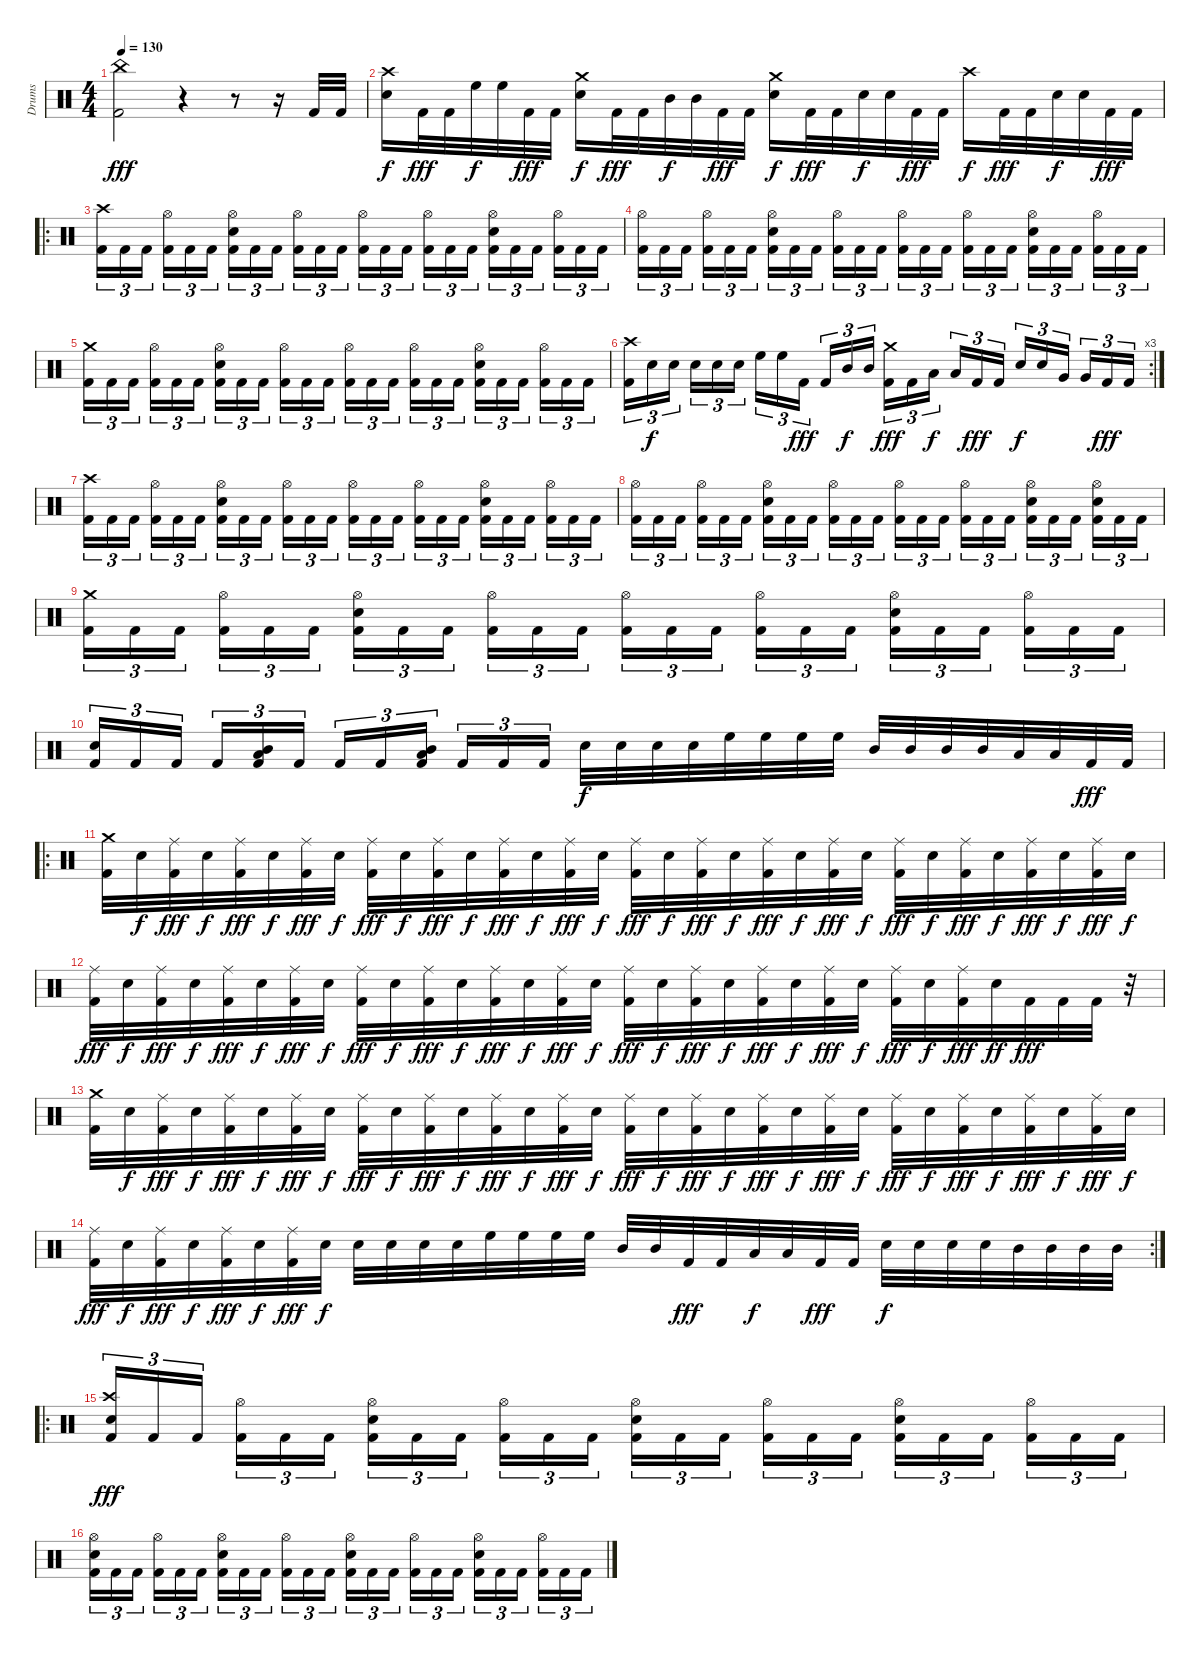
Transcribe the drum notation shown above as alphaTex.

\track ("Drums" "Drums") {instrument percussion}
\staff {score}
\articulation defaults
\ts (4 4)
\tempo 130
\clef neutral
\ks c
("China (hit)" "Kick (hit) 2").2{dy fff} r.4 r.8 r.16 "Kick (hit) 2".32 "Kick (hit) 2".32 |
("Crash high (hit)" "Electric Snare (hit)").16{dy f} "Kick (hit) 2".32{dy fff} "Kick (hit) 2".32 "High Floor Tom (hit)".32{dy f} "High Floor Tom (hit)".32 "Kick (hit) 2".32{dy fff} "Kick (hit) 2".32 ("Crash medium (hit)" "Electric Snare (hit)").16{dy f} "Kick (hit) 2".32{dy fff} "Kick (hit) 2".32 "Mid Tom (hit)".32{dy f} "Mid Tom (hit)".32 "Kick (hit) 2".32{dy fff} "Kick (hit) 2".32 ("Crash medium (hit)" "Electric Snare (hit)").16{dy f} "Kick (hit) 2".32{dy fff} "Kick (hit) 2".32 "Electric Snare (hit)".32{dy f} "Electric Snare (hit)".32 "Kick (hit) 2".32{dy fff} "Kick (hit) 2".32 "Crash high (hit)".16{dy f} "Kick (hit) 2".32{dy fff} "Kick (hit) 2".32 "Electric Snare (hit)".32{dy f} "Electric Snare (hit)".32 "Kick (hit) 2".32{dy fff} "Kick (hit) 2".32 |
\ro
("Crash high (hit)" "Kick (hit) 2").16{tu (3 2)} "Kick (hit) 2".16{tu (3 2)} "Kick (hit) 2".16{tu (3 2)} ("Hi-Hat (open)" "Kick (hit) 2").16{tu (3 2)} "Kick (hit) 2".16{tu (3 2)} "Kick (hit) 2".16{tu (3 2)} ("Hi-Hat (open)" "Electric Snare (hit)" "Kick (hit) 2").16{tu (3 2)} "Kick (hit) 2".16{tu (3 2)} "Kick (hit) 2".16{tu (3 2)} ("Hi-Hat (open)" "Kick (hit) 2").16{tu (3 2)} "Kick (hit) 2".16{tu (3 2)} "Kick (hit) 2".16{tu (3 2)} ("Hi-Hat (open)" "Kick (hit) 2").16{tu (3 2)} "Kick (hit) 2".16{tu (3 2)} "Kick (hit) 2".16{tu (3 2)} ("Hi-Hat (open)" "Kick (hit) 2").16{tu (3 2)} "Kick (hit) 2".16{tu (3 2)} "Kick (hit) 2".16{tu (3 2)} ("Hi-Hat (open)" "Electric Snare (hit)" "Kick (hit) 2").16{tu (3 2)} "Kick (hit) 2".16{tu (3 2)} "Kick (hit) 2".16{tu (3 2)} ("Hi-Hat (open)" "Kick (hit) 2").16{tu (3 2)} "Kick (hit) 2".16{tu (3 2)} "Kick (hit) 2".16{tu (3 2)} |
("Hi-Hat (open)" "Kick (hit) 2").16{tu (3 2)} "Kick (hit) 2".16{tu (3 2)} "Kick (hit) 2".16{tu (3 2)} ("Hi-Hat (open)" "Kick (hit) 2").16{tu (3 2)} "Kick (hit) 2".16{tu (3 2)} "Kick (hit) 2".16{tu (3 2)} ("Hi-Hat (open)" "Electric Snare (hit)" "Kick (hit) 2").16{tu (3 2)} "Kick (hit) 2".16{tu (3 2)} "Kick (hit) 2".16{tu (3 2)} ("Hi-Hat (open)" "Kick (hit) 2").16{tu (3 2)} "Kick (hit) 2".16{tu (3 2)} "Kick (hit) 2".16{tu (3 2)} ("Hi-Hat (open)" "Kick (hit) 2").16{tu (3 2)} "Kick (hit) 2".16{tu (3 2)} "Kick (hit) 2".16{tu (3 2)} ("Hi-Hat (open)" "Kick (hit) 2").16{tu (3 2)} "Kick (hit) 2".16{tu (3 2)} "Kick (hit) 2".16{tu (3 2)} ("Hi-Hat (open)" "Electric Snare (hit)" "Kick (hit) 2").16{tu (3 2)} "Kick (hit) 2".16{tu (3 2)} "Kick (hit) 2".16{tu (3 2)} ("Hi-Hat (open)" "Kick (hit) 2").16{tu (3 2)} "Kick (hit) 2".16{tu (3 2)} "Kick (hit) 2".16{tu (3 2)} |
("Crash medium (hit)" "Kick (hit) 2").16{tu (3 2)} "Kick (hit) 2".16{tu (3 2)} "Kick (hit) 2".16{tu (3 2)} ("Hi-Hat (open)" "Kick (hit) 2").16{tu (3 2)} "Kick (hit) 2".16{tu (3 2)} "Kick (hit) 2".16{tu (3 2)} ("Hi-Hat (open)" "Electric Snare (hit)" "Kick (hit) 2").16{tu (3 2)} "Kick (hit) 2".16{tu (3 2)} "Kick (hit) 2".16{tu (3 2)} ("Hi-Hat (open)" "Kick (hit) 2").16{tu (3 2)} "Kick (hit) 2".16{tu (3 2)} "Kick (hit) 2".16{tu (3 2)} ("Hi-Hat (open)" "Kick (hit) 2").16{tu (3 2)} "Kick (hit) 2".16{tu (3 2)} "Kick (hit) 2".16{tu (3 2)} ("Hi-Hat (open)" "Kick (hit) 2").16{tu (3 2)} "Kick (hit) 2".16{tu (3 2)} "Kick (hit) 2".16{tu (3 2)} ("Hi-Hat (open)" "Electric Snare (hit)" "Kick (hit) 2").16{tu (3 2)} "Kick (hit) 2".16{tu (3 2)} "Kick (hit) 2".16{tu (3 2)} ("Hi-Hat (open)" "Kick (hit) 2").16{tu (3 2)} "Kick (hit) 2".16{tu (3 2)} "Kick (hit) 2".16{tu (3 2)} |
\rc 3
("Crash high (hit)" "Kick (hit) 2").16{tu (3 2)} "Electric Snare (hit)".16{tu (3 2) dy f} "Electric Snare (hit)".16{tu (3 2)} "Electric Snare (hit)".16{tu (3 2)} "Electric Snare (hit)".16{tu (3 2)} "Electric Snare (hit)".16{tu (3 2)} "High Floor Tom (hit)".16{tu (3 2)} "High Floor Tom (hit)".16{tu (3 2)} "Kick (hit) 2".16{tu (3 2) dy fff} "Kick (hit) 2".16{tu (3 2)} "Mid Tom (hit)".16{tu (3 2) dy f} "Mid Tom (hit)".16{tu (3 2)} ("Crash medium (hit)" "Kick (hit) 2").16{tu (3 2) dy fff} "Kick (hit) 2".16{tu (3 2)} "Low Tom (hit)".16{tu (3 2) dy f} "Low Tom (hit)".16{tu (3 2)} "Kick (hit) 2".16{tu (3 2) dy fff} "Kick (hit) 2".16{tu (3 2)} "Electric Snare (hit)".16{tu (3 2) dy f} "Electric Snare (hit)".16{tu (3 2)} "Very Low Tom (hit)".16{tu (3 2)} "Very Low Tom (hit)".16{tu (3 2)} "Kick (hit) 2".16{tu (3 2) dy fff} "Kick (hit) 2".16{tu (3 2)} |
("Crash high (hit)" "Kick (hit) 2").16{tu (3 2)} "Kick (hit) 2".16{tu (3 2)} "Kick (hit) 2".16{tu (3 2)} ("Hi-Hat (open)" "Kick (hit) 2").16{tu (3 2)} "Kick (hit) 2".16{tu (3 2)} "Kick (hit) 2".16{tu (3 2)} ("Hi-Hat (open)" "Electric Snare (hit)" "Kick (hit) 2").16{tu (3 2)} "Kick (hit) 2".16{tu (3 2)} "Kick (hit) 2".16{tu (3 2)} ("Hi-Hat (open)" "Kick (hit) 2").16{tu (3 2)} "Kick (hit) 2".16{tu (3 2)} "Kick (hit) 2".16{tu (3 2)} ("Hi-Hat (open)" "Kick (hit) 2").16{tu (3 2)} "Kick (hit) 2".16{tu (3 2)} "Kick (hit) 2".16{tu (3 2)} ("Hi-Hat (open)" "Kick (hit) 2").16{tu (3 2)} "Kick (hit) 2".16{tu (3 2)} "Kick (hit) 2".16{tu (3 2)} ("Hi-Hat (open)" "Electric Snare (hit)" "Kick (hit) 2").16{tu (3 2)} "Kick (hit) 2".16{tu (3 2)} "Kick (hit) 2".16{tu (3 2)} ("Hi-Hat (open)" "Kick (hit) 2").16{tu (3 2)} "Kick (hit) 2".16{tu (3 2)} "Kick (hit) 2".16{tu (3 2)} |
("Hi-Hat (open)" "Kick (hit) 2").16{tu (3 2)} "Kick (hit) 2".16{tu (3 2)} "Kick (hit) 2".16{tu (3 2)} ("Hi-Hat (open)" "Kick (hit) 2").16{tu (3 2)} "Kick (hit) 2".16{tu (3 2)} "Kick (hit) 2".16{tu (3 2)} ("Hi-Hat (open)" "Electric Snare (hit)" "Kick (hit) 2").16{tu (3 2)} "Kick (hit) 2".16{tu (3 2)} "Kick (hit) 2".16{tu (3 2)} ("Hi-Hat (open)" "Kick (hit) 2").16{tu (3 2)} "Kick (hit) 2".16{tu (3 2)} "Kick (hit) 2".16{tu (3 2)} ("Hi-Hat (open)" "Kick (hit) 2").16{tu (3 2)} "Kick (hit) 2".16{tu (3 2)} "Kick (hit) 2".16{tu (3 2)} ("Hi-Hat (open)" "Kick (hit) 2").16{tu (3 2)} "Kick (hit) 2".16{tu (3 2)} "Kick (hit) 2".16{tu (3 2)} ("Hi-Hat (open)" "Electric Snare (hit)" "Kick (hit) 2").16{tu (3 2)} "Kick (hit) 2".16{tu (3 2)} "Kick (hit) 2".16{tu (3 2)} ("Hi-Hat (open)" "Electric Snare (hit)" "Kick (hit) 2").16{tu (3 2)} "Kick (hit) 2".16{tu (3 2)} "Kick (hit) 2".16{tu (3 2)} |
("Crash medium (hit)" "Kick (hit) 2").16{tu (3 2)} "Kick (hit) 2".16{tu (3 2)} "Kick (hit) 2".16{tu (3 2)} ("Hi-Hat (open)" "Kick (hit) 2").16{tu (3 2)} "Kick (hit) 2".16{tu (3 2)} "Kick (hit) 2".16{tu (3 2)} ("Hi-Hat (open)" "Electric Snare (hit)" "Kick (hit) 2").16{tu (3 2)} "Kick (hit) 2".16{tu (3 2)} "Kick (hit) 2".16{tu (3 2)} ("Hi-Hat (open)" "Kick (hit) 2").16{tu (3 2)} "Kick (hit) 2".16{tu (3 2)} "Kick (hit) 2".16{tu (3 2)} ("Hi-Hat (open)" "Kick (hit) 2").16{tu (3 2)} "Kick (hit) 2".16{tu (3 2)} "Kick (hit) 2".16{tu (3 2)} ("Hi-Hat (open)" "Kick (hit) 2").16{tu (3 2)} "Kick (hit) 2".16{tu (3 2)} "Kick (hit) 2".16{tu (3 2)} ("Hi-Hat (open)" "Electric Snare (hit)" "Kick (hit) 2").16{tu (3 2)} "Kick (hit) 2".16{tu (3 2)} "Kick (hit) 2".16{tu (3 2)} ("Hi-Hat (open)" "Kick (hit) 2").16{tu (3 2)} "Kick (hit) 2".16{tu (3 2)} "Kick (hit) 2".16{tu (3 2)} |
("Electric Snare (hit)" "Kick (hit) 2").16{tu (3 2)} "Kick (hit) 2".16{tu (3 2)} "Kick (hit) 2".16{tu (3 2)} "Kick (hit) 2".16{tu (3 2)} ("Low Tom (hit)" "Mid Tom (hit)" "Kick (hit) 2").16{tu (3 2)} "Kick (hit) 2".16{tu (3 2)} "Kick (hit) 2".16{tu (3 2)} "Kick (hit) 2".16{tu (3 2)} ("Low Tom (hit)" "Mid Tom (hit)" "Kick (hit) 2").16{tu (3 2)} "Kick (hit) 2".16{tu (3 2)} "Kick (hit) 2".16{tu (3 2)} "Kick (hit) 2".16{tu (3 2)} "Electric Snare (hit)".32{dy f} "Electric Snare (hit)".32 "Electric Snare (hit)".32 "Electric Snare (hit)".32 "High Floor Tom (hit)".32 "High Floor Tom (hit)".32 "High Floor Tom (hit)".32 "High Floor Tom (hit)".32 "Mid Tom (hit)".32 "Mid Tom (hit)".32 "Mid Tom (hit)".32 "Mid Tom (hit)".32 "Low Tom (hit)".32 "Low Tom (hit)".32 "Kick (hit) 2".32{dy fff} "Kick (hit) 2".32 |
\ro
("Crash medium (hit)" "Kick (hit) 2").32 "Electric Snare (hit)".32{dy f} ("Ride (middle)" "Kick (hit) 2").32{dy fff} "Electric Snare (hit)".32{dy f} ("Ride (middle)" "Kick (hit) 2").32{dy fff} "Electric Snare (hit)".32{dy f} ("Ride (middle)" "Kick (hit) 2").32{dy fff} "Electric Snare (hit)".32{dy f} ("Ride (middle)" "Kick (hit) 2").32{dy fff} "Electric Snare (hit)".32{dy f} ("Ride (middle)" "Kick (hit) 2").32{dy fff} "Electric Snare (hit)".32{dy f} ("Ride (middle)" "Kick (hit) 2").32{dy fff} "Electric Snare (hit)".32{dy f} ("Ride (middle)" "Kick (hit) 2").32{dy fff} "Electric Snare (hit)".32{dy f} ("Ride (middle)" "Kick (hit) 2").32{dy fff} "Electric Snare (hit)".32{dy f} ("Ride (middle)" "Kick (hit) 2").32{dy fff} "Electric Snare (hit)".32{dy f} ("Ride (middle)" "Kick (hit) 2").32{dy fff} "Electric Snare (hit)".32{dy f} ("Ride (middle)" "Kick (hit) 2").32{dy fff} "Electric Snare (hit)".32{dy f} ("Ride (middle)" "Kick (hit) 2").32{dy fff} "Electric Snare (hit)".32{dy f} ("Ride (middle)" "Kick (hit) 2").32{dy fff} "Electric Snare (hit)".32{dy f} ("Ride (middle)" "Kick (hit) 2").32{dy fff} "Electric Snare (hit)".32{dy f} ("Ride (middle)" "Kick (hit) 2").32{dy fff} "Electric Snare (hit)".32{dy f} |
("Ride (middle)" "Kick (hit) 2").32{dy fff} "Electric Snare (hit)".32{dy f} ("Ride (middle)" "Kick (hit) 2").32{dy fff} "Electric Snare (hit)".32{dy f} ("Ride (middle)" "Kick (hit) 2").32{dy fff} "Electric Snare (hit)".32{dy f} ("Ride (middle)" "Kick (hit) 2").32{dy fff} "Electric Snare (hit)".32{dy f} ("Ride (middle)" "Kick (hit) 2").32{dy fff} "Electric Snare (hit)".32{dy f} ("Ride (middle)" "Kick (hit) 2").32{dy fff} "Electric Snare (hit)".32{dy f} ("Ride (middle)" "Kick (hit) 2").32{dy fff} "Electric Snare (hit)".32{dy f} ("Ride (middle)" "Kick (hit) 2").32{dy fff} "Electric Snare (hit)".32{dy f} ("Ride (middle)" "Kick (hit) 2").32{dy fff} "Electric Snare (hit)".32{dy f} ("Ride (middle)" "Kick (hit) 2").32{dy fff} "Electric Snare (hit)".32{dy f} ("Ride (middle)" "Kick (hit) 2").32{dy fff} "Electric Snare (hit)".32{dy f} ("Ride (middle)" "Kick (hit) 2").32{dy fff} "Electric Snare (hit)".32{dy f} ("Ride (middle)" "Kick (hit) 2").32{dy fff} "Electric Snare (hit)".32{dy f} ("Ride (middle)" "Kick (hit) 2").32{dy fff} "Electric Snare (hit)".32{dy ff} "Kick (hit) 2".32{dy fff} "Kick (hit) 2".32 "Kick (hit) 2".32 r.32 |
("Crash medium (hit)" "Kick (hit) 2").32 "Electric Snare (hit)".32{dy f} ("Ride (middle)" "Kick (hit) 2").32{dy fff} "Electric Snare (hit)".32{dy f} ("Ride (middle)" "Kick (hit) 2").32{dy fff} "Electric Snare (hit)".32{dy f} ("Ride (middle)" "Kick (hit) 2").32{dy fff} "Electric Snare (hit)".32{dy f} ("Ride (middle)" "Kick (hit) 2").32{dy fff} "Electric Snare (hit)".32{dy f} ("Ride (middle)" "Kick (hit) 2").32{dy fff} "Electric Snare (hit)".32{dy f} ("Ride (middle)" "Kick (hit) 2").32{dy fff} "Electric Snare (hit)".32{dy f} ("Ride (middle)" "Kick (hit) 2").32{dy fff} "Electric Snare (hit)".32{dy f} ("Ride (middle)" "Kick (hit) 2").32{dy fff} "Electric Snare (hit)".32{dy f} ("Ride (middle)" "Kick (hit) 2").32{dy fff} "Electric Snare (hit)".32{dy f} ("Ride (middle)" "Kick (hit) 2").32{dy fff} "Electric Snare (hit)".32{dy f} ("Ride (middle)" "Kick (hit) 2").32{dy fff} "Electric Snare (hit)".32{dy f} ("Ride (middle)" "Kick (hit) 2").32{dy fff} "Electric Snare (hit)".32{dy f} ("Ride (middle)" "Kick (hit) 2").32{dy fff} "Electric Snare (hit)".32{dy f} ("Ride (middle)" "Kick (hit) 2").32{dy fff} "Electric Snare (hit)".32{dy f} ("Ride (middle)" "Kick (hit) 2").32{dy fff} "Electric Snare (hit)".32{dy f} |
\rc 2
("Ride (middle)" "Kick (hit) 2").32{dy fff} "Electric Snare (hit)".32{dy f} ("Ride (middle)" "Kick (hit) 2").32{dy fff} "Electric Snare (hit)".32{dy f} ("Ride (middle)" "Kick (hit) 2").32{dy fff} "Electric Snare (hit)".32{dy f} ("Ride (middle)" "Kick (hit) 2").32{dy fff} "Electric Snare (hit)".32{dy f} "Electric Snare (hit)".32 "Electric Snare (hit)".32 "Electric Snare (hit)".32 "Electric Snare (hit)".32 "High Floor Tom (hit)".32 "High Floor Tom (hit)".32 "High Floor Tom (hit)".32 "High Floor Tom (hit)".32 "Mid Tom (hit)".32 "Mid Tom (hit)".32 "Kick (hit) 2".32{dy fff} "Kick (hit) 2".32 "Low Tom (hit)".32{dy f} "Low Tom (hit)".32 "Kick (hit) 2".32{dy fff} "Kick (hit) 2".32 "Electric Snare (hit)".32{dy f} "Electric Snare (hit)".32 "Electric Snare (hit)".32 "Electric Snare (hit)".32 "Mid Tom (hit)".32 "Mid Tom (hit)".32 "Mid Tom (hit)".32 "Mid Tom (hit)".32 |
\ro
("Crash high (hit)" "Electric Snare (hit)" "Kick (hit) 2").16{tu (3 2) dy fff} "Kick (hit) 2".16{tu (3 2)} "Kick (hit) 2".16{tu (3 2)} ("Hi-Hat (open)" "Kick (hit) 2").16{tu (3 2)} "Kick (hit) 2".16{tu (3 2)} "Kick (hit) 2".16{tu (3 2)} ("Hi-Hat (open)" "Electric Snare (hit)" "Kick (hit) 2").16{tu (3 2)} "Kick (hit) 2".16{tu (3 2)} "Kick (hit) 2".16{tu (3 2)} ("Hi-Hat (open)" "Kick (hit) 2").16{tu (3 2)} "Kick (hit) 2".16{tu (3 2)} "Kick (hit) 2".16{tu (3 2)} ("Hi-Hat (open)" "Electric Snare (hit)" "Kick (hit) 2").16{tu (3 2)} "Kick (hit) 2".16{tu (3 2)} "Kick (hit) 2".16{tu (3 2)} ("Hi-Hat (open)" "Kick (hit) 2").16{tu (3 2)} "Kick (hit) 2".16{tu (3 2)} "Kick (hit) 2".16{tu (3 2)} ("Hi-Hat (open)" "Electric Snare (hit)" "Kick (hit) 2").16{tu (3 2)} "Kick (hit) 2".16{tu (3 2)} "Kick (hit) 2".16{tu (3 2)} ("Hi-Hat (open)" "Kick (hit) 2").16{tu (3 2)} "Kick (hit) 2".16{tu (3 2)} "Kick (hit) 2".16{tu (3 2)} |
("Hi-Hat (open)" "Electric Snare (hit)" "Kick (hit) 2").16{tu (3 2)} "Kick (hit) 2".16{tu (3 2)} "Kick (hit) 2".16{tu (3 2)} ("Hi-Hat (open)" "Kick (hit) 2").16{tu (3 2)} "Kick (hit) 2".16{tu (3 2)} "Kick (hit) 2".16{tu (3 2)} ("Hi-Hat (open)" "Electric Snare (hit)" "Kick (hit) 2").16{tu (3 2)} "Kick (hit) 2".16{tu (3 2)} "Kick (hit) 2".16{tu (3 2)} ("Hi-Hat (open)" "Kick (hit) 2").16{tu (3 2)} "Kick (hit) 2".16{tu (3 2)} "Kick (hit) 2".16{tu (3 2)} ("Hi-Hat (open)" "Electric Snare (hit)" "Kick (hit) 2").16{tu (3 2)} "Kick (hit) 2".16{tu (3 2)} "Kick (hit) 2".16{tu (3 2)} ("Hi-Hat (open)" "Kick (hit) 2").16{tu (3 2)} "Kick (hit) 2".16{tu (3 2)} "Kick (hit) 2".16{tu (3 2)} ("Hi-Hat (open)" "Electric Snare (hit)" "Kick (hit) 2").16{tu (3 2)} "Kick (hit) 2".16{tu (3 2)} "Kick (hit) 2".16{tu (3 2)} ("Hi-Hat (open)" "Kick (hit) 2").16{tu (3 2)} "Kick (hit) 2".16{tu (3 2)} "Kick (hit) 2".16{tu (3 2)}
